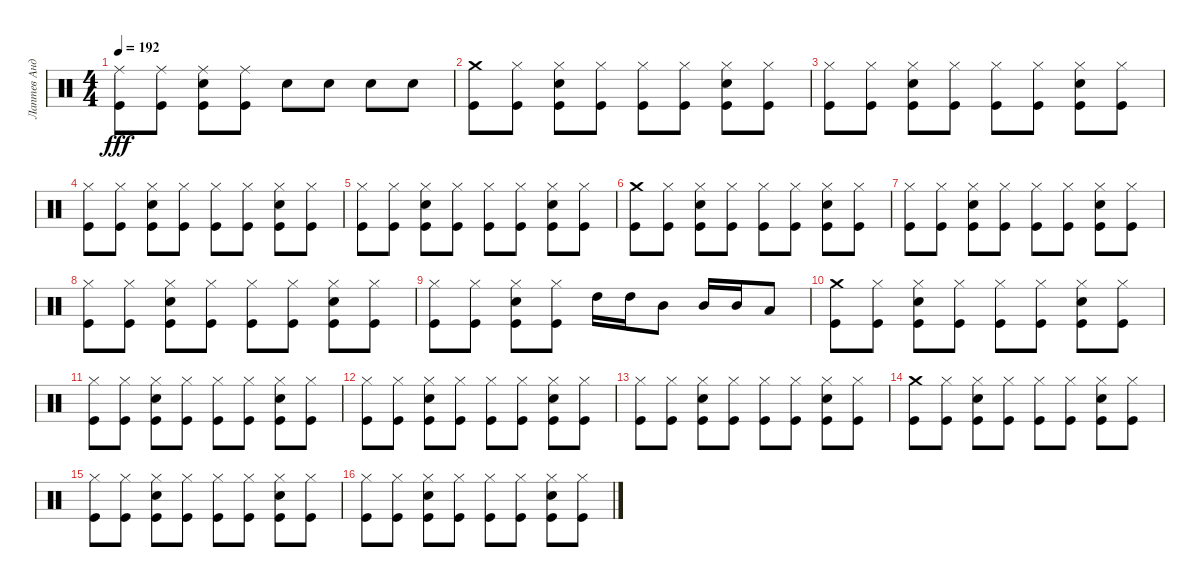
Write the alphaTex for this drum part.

\track ("Лаптев Андрей" "Лаптев Анд") {instrument percussion}
\staff {score}
\articulation defaults
\ts (4 4)
\tempo 192
\clef neutral
\ks c
("Kick (hit)" "Ride (middle)").8{dy fff} ("Ride (middle)" "Kick (hit)").8 ("Electric Snare (hit)" "Ride (middle)" "Kick (hit)").8 ("Kick (hit)" "Ride (middle)").8 "Electric Snare (hit)".8 "Electric Snare (hit)".8 "Electric Snare (hit)".8 "Electric Snare (hit)".8 |
("Kick (hit)" "Crash medium (hit)").8 ("Kick (hit)" "Hi-Hat (closed)").8 ("Hi-Hat (closed)" "Kick (hit)" "Electric Snare (hit)").8 ("Kick (hit)" "Hi-Hat (closed)").8 ("Hi-Hat (closed)" "Kick (hit)").8 ("Hi-Hat (closed)" "Kick (hit)").8 ("Hi-Hat (closed)" "Kick (hit)" "Electric Snare (hit)").8 ("Hi-Hat (closed)" "Kick (hit)").8 |
("Hi-Hat (closed)" "Kick (hit)").8 ("Kick (hit)" "Hi-Hat (closed)").8 ("Kick (hit)" "Hi-Hat (closed)" "Electric Snare (hit)").8 ("Hi-Hat (closed)" "Kick (hit)").8 ("Kick (hit)" "Hi-Hat (closed)").8 ("Kick (hit)" "Hi-Hat (closed)").8 ("Hi-Hat (closed)" "Kick (hit)" "Electric Snare (hit)").8 ("Kick (hit)" "Hi-Hat (closed)").8 |
("Hi-Hat (closed)" "Kick (hit)").8 ("Kick (hit)" "Hi-Hat (closed)").8 ("Kick (hit)" "Hi-Hat (closed)" "Electric Snare (hit)").8 ("Hi-Hat (closed)" "Kick (hit)").8 ("Hi-Hat (closed)" "Kick (hit)").8 ("Hi-Hat (closed)" "Kick (hit)").8 ("Kick (hit)" "Hi-Hat (closed)" "Electric Snare (hit)").8 ("Hi-Hat (closed)" "Kick (hit)").8 |
("Kick (hit)" "Hi-Hat (closed)").8 ("Kick (hit)" "Hi-Hat (closed)").8 ("Hi-Hat (closed)" "Electric Snare (hit)" "Kick (hit)").8 ("Kick (hit)" "Hi-Hat (closed)").8 ("Hi-Hat (closed)" "Kick (hit)").8 ("Hi-Hat (closed)" "Kick (hit)").8 ("Kick (hit)" "Electric Snare (hit)" "Hi-Hat (closed)").8 ("Hi-Hat (closed)" "Kick (hit)").8 |
("Crash medium (hit)" "Kick (hit)").8 ("Kick (hit)" "Hi-Hat (closed)").8 ("Hi-Hat (closed)" "Electric Snare (hit)" "Kick (hit)").8 ("Hi-Hat (closed)" "Kick (hit)").8 ("Hi-Hat (closed)" "Kick (hit)").8 ("Hi-Hat (closed)" "Kick (hit)").8 ("Hi-Hat (closed)" "Electric Snare (hit)" "Kick (hit)").8 ("Kick (hit)" "Hi-Hat (closed)").8 |
("Hi-Hat (closed)" "Kick (hit)").8 ("Hi-Hat (closed)" "Kick (hit)").8 ("Kick (hit)" "Hi-Hat (closed)" "Electric Snare (hit)").8 ("Hi-Hat (closed)" "Kick (hit)").8 ("Hi-Hat (closed)" "Kick (hit)").8 ("Kick (hit)" "Hi-Hat (closed)").8 ("Kick (hit)" "Hi-Hat (closed)" "Electric Snare (hit)").8 ("Kick (hit)" "Hi-Hat (closed)").8 |
("Kick (hit)" "Hi-Hat (closed)").8 ("Kick (hit)" "Hi-Hat (closed)").8 ("Hi-Hat (closed)" "Electric Snare (hit)" "Kick (hit)").8 ("Kick (hit)" "Hi-Hat (closed)").8 ("Hi-Hat (closed)" "Kick (hit)").8 ("Hi-Hat (closed)" "Kick (hit)").8 ("Electric Snare (hit)" "Kick (hit)" "Hi-Hat (closed)").8 ("Kick (hit)" "Hi-Hat (closed)").8 |
("Kick (hit)" "Hi-Hat (closed)").8 ("Hi-Hat (closed)" "Kick (hit)").8 ("Electric Snare (hit)" "Kick (hit)" "Hi-Hat (closed)").8 ("Kick (hit)" "Hi-Hat (closed)").8 "High Tom (hit)".16 "High Tom (hit)".16 "Mid Tom (hit)".8 "Mid Tom (hit)".16 "Mid Tom (hit)".16 "Low Tom (hit)".8 |
("Crash medium (hit)" "Kick (hit)").8 ("Kick (hit)" "Hi-Hat (closed)").8 ("Electric Snare (hit)" "Kick (hit)" "Hi-Hat (closed)").8 ("Hi-Hat (closed)" "Kick (hit)").8 ("Kick (hit)" "Hi-Hat (closed)").8 ("Hi-Hat (closed)" "Kick (hit)").8 ("Electric Snare (hit)" "Hi-Hat (closed)" "Kick (hit)").8 ("Hi-Hat (closed)" "Kick (hit)").8 |
("Hi-Hat (closed)" "Kick (hit)").8 ("Hi-Hat (closed)" "Kick (hit)").8 ("Hi-Hat (closed)" "Kick (hit)" "Electric Snare (hit)").8 ("Kick (hit)" "Hi-Hat (closed)").8 ("Kick (hit)" "Hi-Hat (closed)").8 ("Hi-Hat (closed)" "Kick (hit)").8 ("Electric Snare (hit)" "Hi-Hat (closed)" "Kick (hit)").8 ("Hi-Hat (closed)" "Kick (hit)").8 |
("Kick (hit)" "Hi-Hat (closed)").8 ("Hi-Hat (closed)" "Kick (hit)").8 ("Hi-Hat (closed)" "Kick (hit)" "Electric Snare (hit)").8 ("Kick (hit)" "Hi-Hat (closed)").8 ("Hi-Hat (closed)" "Kick (hit)").8 ("Hi-Hat (closed)" "Kick (hit)").8 ("Kick (hit)" "Hi-Hat (closed)" "Electric Snare (hit)").8 ("Hi-Hat (closed)" "Kick (hit)").8 |
("Kick (hit)" "Hi-Hat (closed)").8 ("Kick (hit)" "Hi-Hat (closed)").8 ("Kick (hit)" "Hi-Hat (closed)" "Electric Snare (hit)").8 ("Hi-Hat (closed)" "Kick (hit)").8 ("Hi-Hat (closed)" "Kick (hit)").8 ("Kick (hit)" "Hi-Hat (closed)").8 ("Kick (hit)" "Electric Snare (hit)" "Hi-Hat (closed)").8 ("Hi-Hat (closed)" "Kick (hit)").8 |
("Crash medium (hit)" "Kick (hit)").8 ("Hi-Hat (closed)" "Kick (hit)").8 ("Electric Snare (hit)" "Hi-Hat (closed)" "Kick (hit)").8 ("Hi-Hat (closed)" "Kick (hit)").8 ("Kick (hit)" "Hi-Hat (closed)").8 ("Hi-Hat (closed)" "Kick (hit)").8 ("Hi-Hat (closed)" "Electric Snare (hit)" "Kick (hit)").8 ("Kick (hit)" "Hi-Hat (closed)").8 |
("Kick (hit)" "Hi-Hat (closed)").8 ("Kick (hit)" "Hi-Hat (closed)").8 ("Hi-Hat (closed)" "Electric Snare (hit)" "Kick (hit)").8 ("Kick (hit)" "Hi-Hat (closed)").8 ("Hi-Hat (closed)" "Kick (hit)").8 ("Hi-Hat (closed)" "Kick (hit)").8 ("Hi-Hat (closed)" "Electric Snare (hit)" "Kick (hit)").8 ("Kick (hit)" "Hi-Hat (closed)").8 |
("Kick (hit)" "Hi-Hat (closed)").8 ("Hi-Hat (closed)" "Kick (hit)").8 ("Kick (hit)" "Hi-Hat (closed)" "Electric Snare (hit)").8 ("Kick (hit)" "Hi-Hat (closed)").8 ("Kick (hit)" "Hi-Hat (closed)").8 ("Hi-Hat (closed)" "Kick (hit)").8 ("Hi-Hat (closed)" "Kick (hit)" "Electric Snare (hit)").8 ("Hi-Hat (closed)" "Kick (hit)").8
